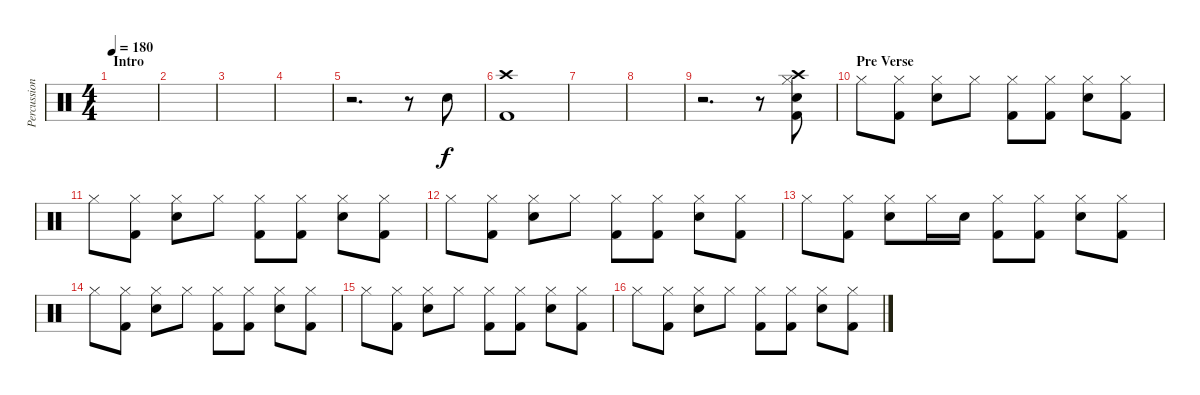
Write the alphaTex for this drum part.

\track ("Percussion" "Percussion") {instrument percussion}
\staff {score}
\articulation defaults
\ts (4 4)
\section ("" "Intro")
\tempo 180
\clef neutral
\ks c
|
|
|
|
r.2{d} r.8 "Electric Snare (hit)".8 |
("Crash high (hit)" "Kick (hit) 2").1 |
|
|
r.2{d} r.8 ("Crash high (hit)" "Hi-Hat (closed)" "Electric Snare (hit)" "Kick (hit) 2").8 |
\section ("" "Pre Verse")
"Hi-Hat (closed)".8 ("Hi-Hat (closed)" "Kick (hit) 2").8 ("Hi-Hat (closed)" "Electric Snare (hit)").8 "Hi-Hat (closed)".8 ("Hi-Hat (closed)" "Kick (hit) 2").8 ("Hi-Hat (closed)" "Kick (hit) 2").8 ("Hi-Hat (closed)" "Electric Snare (hit)").8 ("Hi-Hat (closed)" "Kick (hit) 2").8 |
"Hi-Hat (closed)".8 ("Hi-Hat (closed)" "Kick (hit) 2").8 ("Hi-Hat (closed)" "Electric Snare (hit)").8 "Hi-Hat (closed)".8 ("Hi-Hat (closed)" "Kick (hit) 2").8 ("Hi-Hat (closed)" "Kick (hit) 2").8 ("Hi-Hat (closed)" "Electric Snare (hit)").8 ("Hi-Hat (closed)" "Kick (hit) 2").8 |
"Hi-Hat (closed)".8 ("Hi-Hat (closed)" "Kick (hit) 2").8 ("Hi-Hat (closed)" "Electric Snare (hit)").8 "Hi-Hat (closed)".8 ("Hi-Hat (closed)" "Kick (hit) 2").8 ("Hi-Hat (closed)" "Kick (hit) 2").8 ("Hi-Hat (closed)" "Electric Snare (hit)").8 ("Hi-Hat (closed)" "Kick (hit) 2").8 |
"Hi-Hat (closed)".8 ("Hi-Hat (closed)" "Kick (hit) 2").8 ("Hi-Hat (closed)" "Electric Snare (hit)").8 "Hi-Hat (closed)".16 "Electric Snare (hit)".16 ("Hi-Hat (closed)" "Kick (hit) 2").8 ("Hi-Hat (closed)" "Kick (hit) 2").8 ("Hi-Hat (closed)" "Electric Snare (hit)").8 ("Hi-Hat (closed)" "Kick (hit) 2").8 |
"Hi-Hat (closed)".8 ("Hi-Hat (closed)" "Kick (hit) 2").8 ("Hi-Hat (closed)" "Electric Snare (hit)").8 "Hi-Hat (closed)".8 ("Hi-Hat (closed)" "Kick (hit) 2").8 ("Hi-Hat (closed)" "Kick (hit) 2").8 ("Hi-Hat (closed)" "Electric Snare (hit)").8 ("Hi-Hat (closed)" "Kick (hit) 2").8 |
"Hi-Hat (closed)".8 ("Hi-Hat (closed)" "Kick (hit) 2").8 ("Hi-Hat (closed)" "Electric Snare (hit)").8 "Hi-Hat (closed)".8 ("Hi-Hat (closed)" "Kick (hit) 2").8 ("Hi-Hat (closed)" "Kick (hit) 2").8 ("Hi-Hat (closed)" "Electric Snare (hit)").8 ("Hi-Hat (closed)" "Kick (hit) 2").8 |
"Hi-Hat (closed)".8 ("Hi-Hat (closed)" "Kick (hit) 2").8 ("Hi-Hat (closed)" "Electric Snare (hit)").8 "Hi-Hat (closed)".8 ("Hi-Hat (closed)" "Kick (hit) 2").8 ("Hi-Hat (closed)" "Kick (hit) 2").8 ("Hi-Hat (closed)" "Electric Snare (hit)").8 ("Hi-Hat (closed)" "Kick (hit) 2").8
